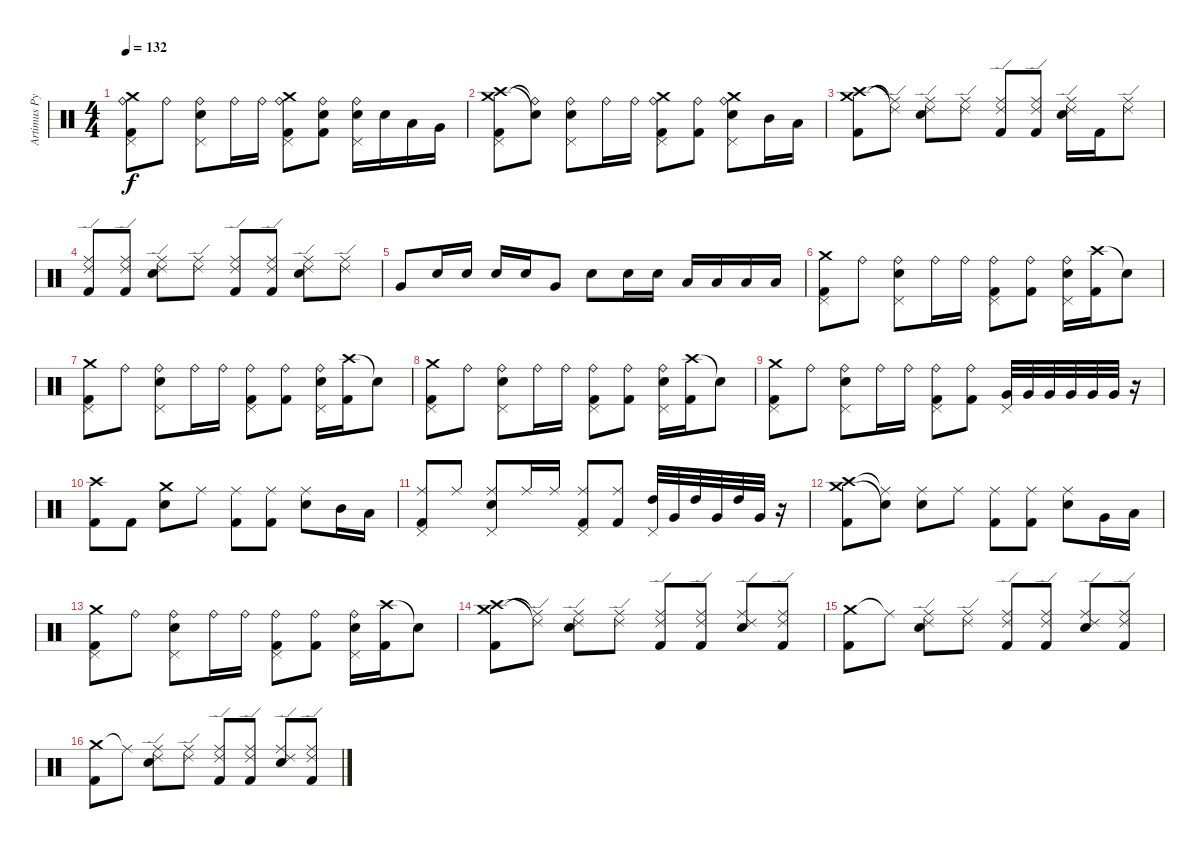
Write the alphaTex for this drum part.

\track ("Artimus Pyle" "Artimus Py") {instrument percussion}
\staff {score}
\articulation defaults
\ts (4 4)
\tempo 132
\clef neutral
\ks c
("Ride (bell)" "Crash medium (hit)" "Pedal Hi-Hat (hit)" "Kick (hit) 2").8{dy f} "Ride (bell)".8 ("Ride (bell)" "Snare (hit) 2" "Pedal Hi-Hat (hit)").8 "Ride (bell)".16 "Ride (bell)".16 ("Ride (bell)" "Crash medium (hit)" "Pedal Hi-Hat (hit)" "Kick (hit) 2").8 ("Ride (bell)" "Snare (hit) 2" "Kick (hit) 2").8 ("Ride (bell)" "Snare (hit) 2" "Pedal Hi-Hat (hit)").16 "Snare (hit) 2".16 "Low Tom (hit)".16 "Very Low Tom (hit)".16 |
("Crash medium (hit)" "Crash high (hit)" "Pedal Hi-Hat (hit)" "Kick (hit) 2").8 ("Ride (bell)"{t} "Snare (hit)"{t}).8 ("Ride (bell)" "Snare (hit) 2" "Pedal Hi-Hat (hit)").8 "Ride (bell)".16 "Ride (bell)".16 ("Ride (bell)" "Crash medium (hit)" "Pedal Hi-Hat (hit)" "Kick (hit) 2").8 ("Ride (bell)" "Kick (hit) 2").8 ("Ride (bell)" "Crash medium (hit)" "Snare (hit) 2" "Pedal Hi-Hat (hit)").8 "Mid Tom (hit)".16 "Low Tom (hit)".16 |
("Crash medium (hit)" "Crash high (hit)" "Kick (hit) 2").8 ("Ride (middle)"{t} "Ride (edge) 2"{t}).8 ("Ride (middle)" "Ride (edge) 2" "Snare (hit) 2").8 ("Ride (middle)" "Ride (edge) 2").8 ("Ride (middle)" "Ride (edge) 2" "Kick (hit) 2").8 ("Ride (middle)" "Ride (edge) 2" "Kick (hit) 2").8 ("Ride (middle)" "Ride (edge) 2" "Snare (hit) 2").16 "Kick (hit) 2".16 ("Ride (middle)" "Ride (edge) 2").8 |
("Ride (middle)" "Ride (edge) 2" "Kick (hit) 2").8 ("Ride (middle)" "Ride (edge) 2" "Kick (hit) 2").8 ("Ride (middle)" "Ride (edge) 2" "Snare (hit) 2").8 ("Ride (middle)" "Ride (edge) 2").8 ("Ride (middle)" "Ride (edge) 2" "Kick (hit) 2").8 ("Ride (middle)" "Ride (edge) 2" "Kick (hit) 2").8 ("Ride (middle)" "Ride (edge) 2" "Snare (hit) 2").8 ("Ride (middle)" "Ride (edge) 2").8 |
"Very Low Tom (hit)".8 "Snare (hit) 2".16 "Snare (hit) 2".16 "Snare (hit) 2".16 "Snare (hit) 2".16 "Very Low Tom (hit)".8 "Snare (hit) 2".8 "Snare (hit) 2".16 "Snare (hit) 2".16 "Low Floor Tom (hit)".16 "Low Floor Tom (hit)".16 "Low Floor Tom (hit)".16 "Low Floor Tom (hit)".16 |
("Crash medium (hit)" "Pedal Hi-Hat (hit)" "Kick (hit) 2").8 "Ride (bell)".8 ("Ride (bell)" "Snare (hit) 2" "Pedal Hi-Hat (hit)").8 "Ride (bell)".16 "Ride (bell)".16 ("Ride (bell)" "Pedal Hi-Hat (hit)" "Kick (hit) 2").8 ("Ride (bell)" "Kick (hit) 2").8 ("Ride (bell)" "Snare (hit) 2" "Pedal Hi-Hat (hit)").16 ("Crash high (hit)" "Kick (hit) 2").16 "Snare (hit)"{t}.8 |
("Crash medium (hit)" "Pedal Hi-Hat (hit)" "Kick (hit) 2").8 "Ride (bell)".8 ("Ride (bell)" "Snare (hit) 2" "Pedal Hi-Hat (hit)").8 "Ride (bell)".16 "Ride (bell)".16 ("Ride (bell)" "Pedal Hi-Hat (hit)" "Kick (hit) 2").8 ("Ride (bell)" "Kick (hit) 2").8 ("Ride (bell)" "Snare (hit) 2" "Pedal Hi-Hat (hit)").16 ("Crash high (hit)" "Kick (hit) 2").16 "Snare (hit)"{t}.8 |
("Crash medium (hit)" "Pedal Hi-Hat (hit)" "Kick (hit) 2").8 "Ride (bell)".8 ("Ride (bell)" "Snare (hit) 2" "Pedal Hi-Hat (hit)").8 "Ride (bell)".16 "Ride (bell)".16 ("Ride (bell)" "Pedal Hi-Hat (hit)" "Kick (hit) 2").8 ("Ride (bell)" "Kick (hit) 2").8 ("Ride (bell)" "Snare (hit) 2" "Pedal Hi-Hat (hit)").16 ("Crash high (hit)" "Kick (hit) 2").16 "Snare (hit)"{t}.8 |
("Crash medium (hit)" "Pedal Hi-Hat (hit)" "Kick (hit) 2").8 "Ride (bell)".8 ("Ride (bell)" "Snare (hit) 2" "Pedal Hi-Hat (hit)").8 "Ride (bell)".16 "Ride (bell)".16 ("Ride (bell)" "Pedal Hi-Hat (hit)" "Kick (hit) 2").8 ("Ride (bell)" "Kick (hit) 2").8 ("Very Low Tom (hit)" "Pedal Hi-Hat (hit)").32 "Very Low Tom (hit)".32 "Very Low Tom (hit)".32 "Very Low Tom (hit)".32 "Very Low Tom (hit)".32 "Very Low Tom (hit)".32 r.16 |
("Crash high (hit)" "Kick (hit) 2").8 "Kick (hit) 2".8 ("Crash medium (hit)" "Snare (hit) 2").8 "Ride (middle)".8 ("Ride (middle)" "Kick (hit) 2").8 ("Ride (middle)" "Kick (hit) 2").8 ("Ride (middle)" "Snare (hit) 2").8 "Mid Tom (hit)".16 "Low Tom (hit)".16 |
("Ride (middle)" "Pedal Hi-Hat (hit)" "Kick (hit) 2").8 "Ride (middle)".8 ("Ride (middle)" "Snare (hit) 2" "Pedal Hi-Hat (hit)").8 "Ride (middle)".16 "Ride (middle)".16 ("Ride (middle)" "Pedal Hi-Hat (hit)" "Kick (hit) 2").8 ("Ride (middle)" "Kick (hit) 2").8 ("High Tom (hit)" "Pedal Hi-Hat (hit)").32 "Very Low Tom (hit)".32 "High Tom (hit)".32 "Very Low Tom (hit)".32 "High Tom (hit)".32 "Very Low Tom (hit)".32 r.16 |
("Crash high (hit)" "Crash medium (hit)" "Kick (hit) 2").8 ("Ride (middle)"{t} "Snare (hit)"{t}).8 ("Ride (middle)" "Snare (hit) 2").8 "Ride (middle)".8 ("Ride (middle)" "Kick (hit) 2").8 ("Ride (middle)" "Kick (hit) 2").8 ("Ride (middle)" "Snare (hit) 2").8 "Very Low Tom (hit)".16 "Low Floor Tom (hit)".16 |
("Crash medium (hit)" "Pedal Hi-Hat (hit)" "Kick (hit) 2").8 "Ride (bell)".8 ("Ride (bell)" "Snare (hit) 2" "Pedal Hi-Hat (hit)").8 "Ride (bell)".16 "Ride (bell)".16 ("Ride (bell)" "Pedal Hi-Hat (hit)" "Kick (hit) 2").8 ("Ride (bell)" "Kick (hit) 2").8 ("Ride (bell)" "Snare (hit) 2" "Pedal Hi-Hat (hit)").16 ("Crash high (hit)" "Kick (hit) 2").16 "Snare (hit)"{t}.8 |
("Crash medium (hit)" "Crash high (hit)" "Kick (hit) 2").8 ("Ride (middle)"{t} "Ride (edge) 2"{t}).8 ("Ride (middle)" "Ride (edge) 2" "Snare (hit) 2").8 ("Ride (middle)" "Ride (edge) 2").8 ("Ride (middle)" "Ride (edge) 2" "Kick (hit) 2").8 ("Ride (middle)" "Ride (edge) 2" "Kick (hit) 2").8 ("Ride (middle)" "Ride (edge) 2" "Snare (hit) 2").8 ("Ride (middle)" "Ride (edge) 2" "Kick (hit) 2").8 |
("Crash medium (hit)" "Kick (hit) 2").8 "Ride (middle)"{t}.8 ("Ride (middle)" "Ride (edge) 2" "Snare (hit) 2").8 ("Ride (middle)" "Ride (edge) 2").8 ("Ride (middle)" "Ride (edge) 2" "Kick (hit) 2").8 ("Ride (middle)" "Ride (edge) 2" "Kick (hit) 2").8 ("Ride (middle)" "Ride (edge) 2" "Snare (hit) 2").8 ("Ride (middle)" "Ride (edge) 2" "Kick (hit) 2").8 |
("Crash medium (hit)" "Kick (hit) 2").8 "Ride (middle)"{t}.8 ("Ride (middle)" "Ride (edge) 2" "Snare (hit) 2").8 ("Ride (middle)" "Ride (edge) 2").8 ("Ride (middle)" "Ride (edge) 2" "Kick (hit) 2").8 ("Ride (middle)" "Ride (edge) 2" "Kick (hit) 2").8 ("Ride (middle)" "Ride (edge) 2" "Snare (hit) 2").8 ("Ride (middle)" "Ride (edge) 2" "Kick (hit) 2").8
